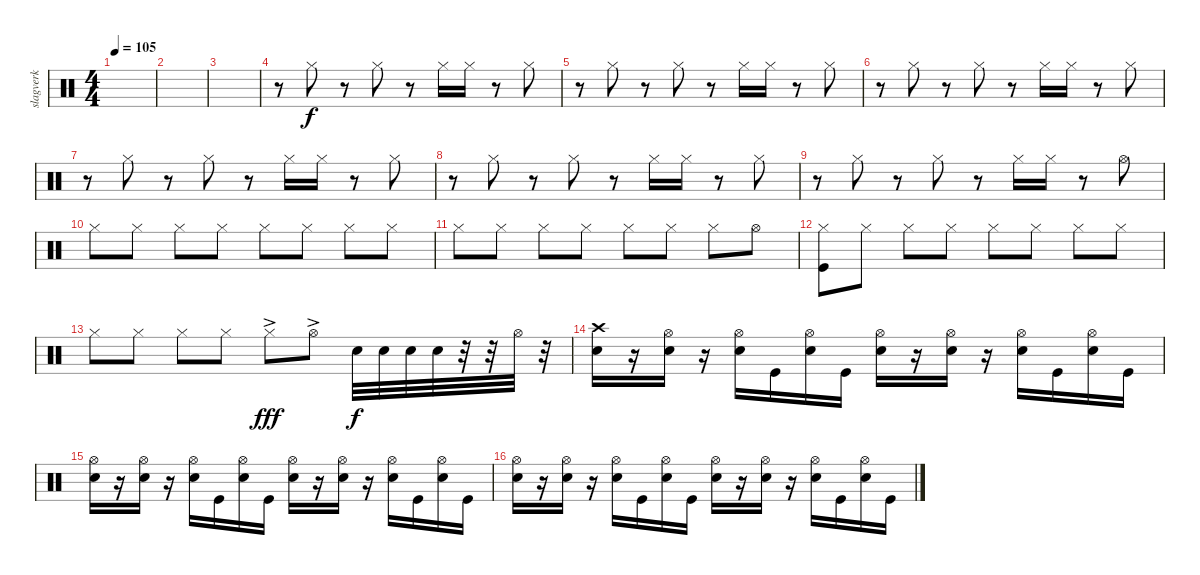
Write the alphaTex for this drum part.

\track ("slagverk" "slagverk") {instrument percussion}
\staff {score}
\articulation defaults
\ts (4 4)
\tempo 105
\clef neutral
\ks c
|
|
|
r.8 "Hi-Hat (closed)".8 r.8 "Hi-Hat (closed)".8 r.8 "Hi-Hat (closed)".16 "Hi-Hat (closed)".16 r.8 "Hi-Hat (closed)".8 |
r.8 "Hi-Hat (closed)".8 r.8 "Hi-Hat (closed)".8 r.8 "Hi-Hat (closed)".16 "Hi-Hat (closed)".16 r.8 "Hi-Hat (closed)".8 |
r.8 "Hi-Hat (closed)".8 r.8 "Hi-Hat (closed)".8 r.8 "Hi-Hat (closed)".16 "Hi-Hat (closed)".16 r.8 "Hi-Hat (closed)".8 |
r.8 "Hi-Hat (closed)".8 r.8 "Hi-Hat (closed)".8 r.8 "Hi-Hat (closed)".16 "Hi-Hat (closed)".16 r.8 "Hi-Hat (closed)".8 |
r.8 "Hi-Hat (closed)".8 r.8 "Hi-Hat (closed)".8 r.8 "Hi-Hat (closed)".16 "Hi-Hat (closed)".16 r.8 "Hi-Hat (closed)".8 |
r.8 "Hi-Hat (closed)".8 r.8 "Hi-Hat (closed)".8 r.8 "Hi-Hat (closed)".16 "Hi-Hat (closed)".16 r.8 "Hi-Hat (open)".8 |
"Hi-Hat (closed)".8 "Hi-Hat (closed)".8 "Hi-Hat (closed)".8 "Hi-Hat (closed)".8 "Hi-Hat (closed)".8 "Hi-Hat (closed)".8 "Hi-Hat (closed)".8 "Hi-Hat (closed)".8 |
"Hi-Hat (closed)".8 "Hi-Hat (closed)".8 "Hi-Hat (closed)".8 "Hi-Hat (closed)".8 "Hi-Hat (closed)".8 "Hi-Hat (closed)".8 "Hi-Hat (closed)".8 "Hi-Hat (open)".8 |
("Hi-Hat (closed)" "Kick (hit)").8 "Hi-Hat (closed)".8 "Hi-Hat (closed)".8 "Hi-Hat (closed)".8 "Hi-Hat (closed)".8 "Hi-Hat (closed)".8 "Hi-Hat (closed)".8 "Hi-Hat (closed)".8 |
"Hi-Hat (closed)".8 "Hi-Hat (closed)".8 "Hi-Hat (closed)".8 "Hi-Hat (closed)".8 "Hi-Hat (closed)"{ac}.8{dy fff} "Hi-Hat (open)"{ac}.8 "Snare (hit) 2".32{dy f} "Snare (hit) 2".32 "Snare (hit) 2".32 "Snare (hit) 2".32 r.32 r.32 "Hi-Hat (open)".32 r.32 |
("Crash high (hit)" "Snare (hit) 2").16 r.16 ("Hi-Hat (open)" "Snare (hit) 2").16 r.16 ("Hi-Hat (open)" "Snare (hit) 2").16 "Kick (hit)".16 ("Hi-Hat (open)" "Snare (hit) 2").16 "Kick (hit)".16 ("Hi-Hat (open)" "Snare (hit) 2").16 r.16 ("Hi-Hat (open)" "Snare (hit) 2").16 r.16 ("Hi-Hat (open)" "Snare (hit) 2").16 "Kick (hit)".16 ("Hi-Hat (open)" "Snare (hit) 2").16 "Kick (hit)".16 |
("Hi-Hat (open)" "Snare (hit) 2").16 r.16 ("Hi-Hat (open)" "Snare (hit) 2").16 r.16 ("Hi-Hat (open)" "Snare (hit) 2").16 "Kick (hit)".16 ("Hi-Hat (open)" "Snare (hit) 2").16 "Kick (hit)".16 ("Hi-Hat (open)" "Snare (hit) 2").16 r.16 ("Hi-Hat (open)" "Snare (hit) 2").16 r.16 ("Hi-Hat (open)" "Snare (hit) 2").16 "Kick (hit)".16 ("Hi-Hat (open)" "Snare (hit) 2").16 "Kick (hit)".16 |
("Hi-Hat (open)" "Snare (hit) 2").16 r.16 ("Hi-Hat (open)" "Snare (hit) 2").16 r.16 ("Hi-Hat (open)" "Snare (hit) 2").16 "Kick (hit)".16 ("Hi-Hat (open)" "Snare (hit) 2").16 "Kick (hit)".16 ("Hi-Hat (open)" "Snare (hit) 2").16 r.16 ("Hi-Hat (open)" "Snare (hit) 2").16 r.16 ("Hi-Hat (open)" "Snare (hit) 2").16 "Kick (hit)".16 ("Hi-Hat (open)" "Snare (hit) 2").16 "Kick (hit)".16
